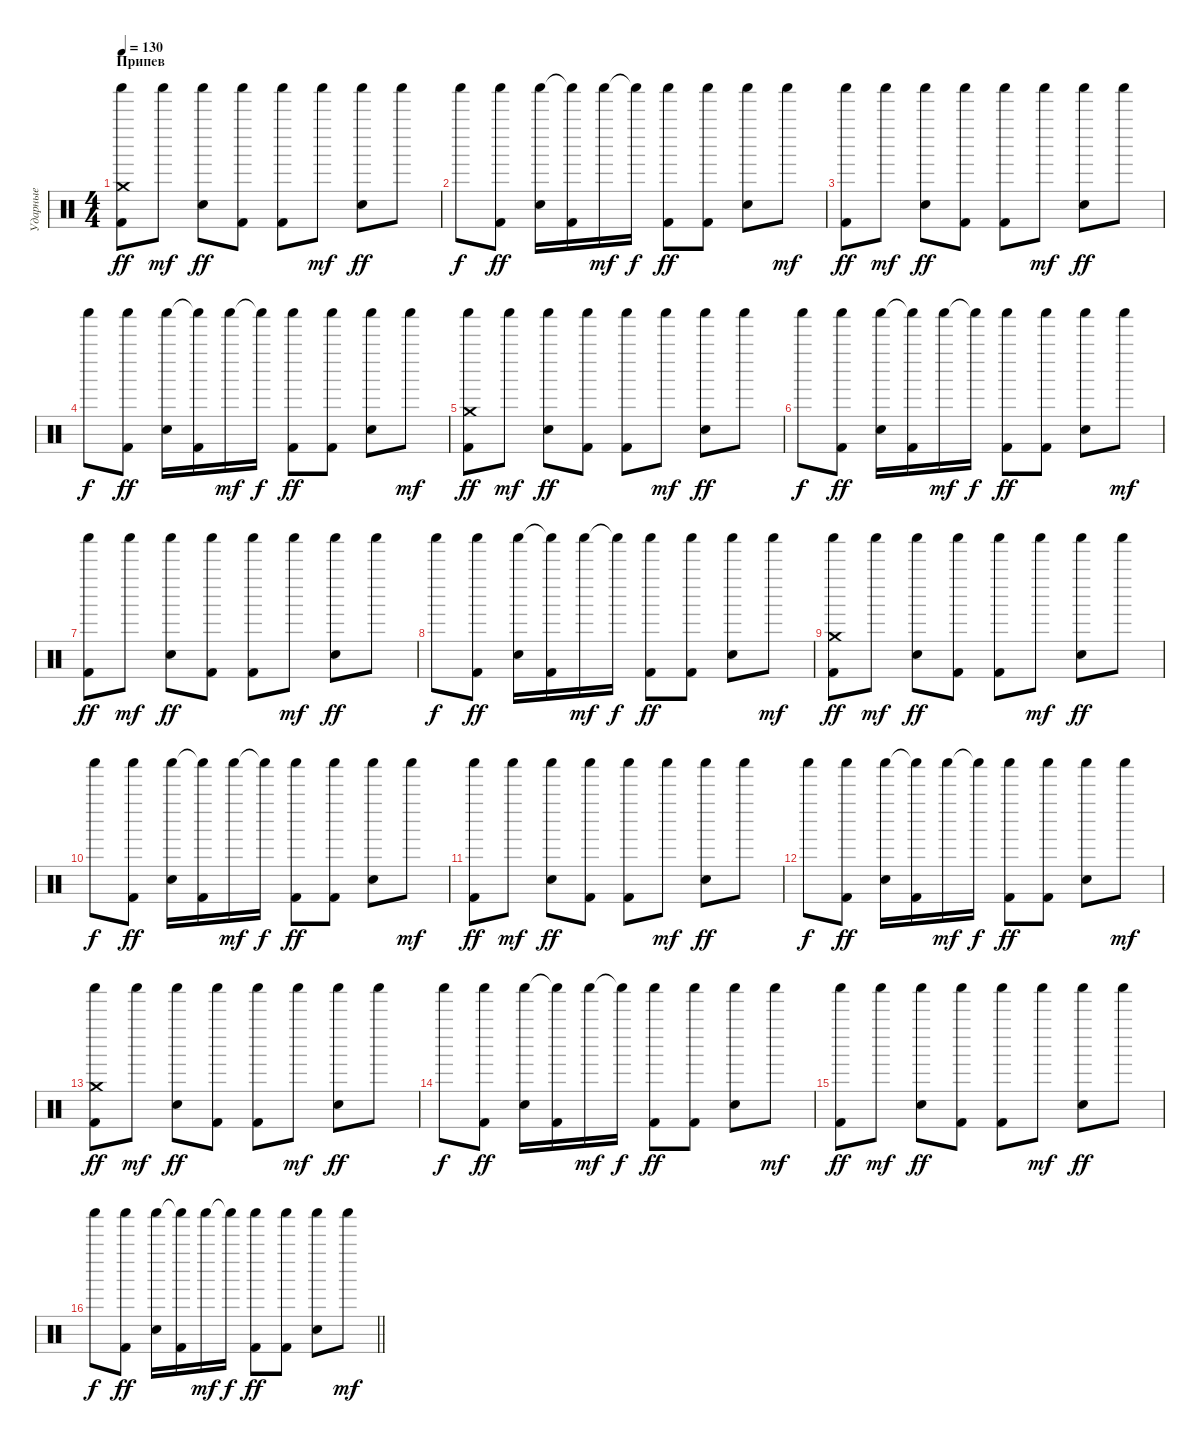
\track ("Ударные" "Ударные") {instrument percussion}
\staff {score}
\articulation defaults
\ts (4 4)
\section ("" "Припев")
\tempo 130
\clef neutral
\ks c
("Shaker (hit)" "Kick (hit) 2" "Crash medium (hit)").8{dy ff} "Shaker (hit)".8{dy mf} ("Shaker (hit)" "Snare (hit) 2").8{dy ff} ("Shaker (hit)" "Kick (hit) 2").8 ("Shaker (hit)" "Kick (hit) 2").8 "Shaker (hit)".8{dy mf} ("Shaker (hit)" "Snare (hit) 2").8{dy ff} "Shaker (hit)".8 |
"Shaker (hit)".8{dy f} ("Shaker (hit)" "Kick (hit) 2").8{dy ff} ("Shaker (hit)" "Snare (hit) 2").16 ("Shaker (hit)"{t} "Kick (hit) 2").16 "Shaker (hit)".16{dy mf} "Shaker (hit)"{t}.16{dy f} ("Shaker (hit)" "Kick (hit) 2").8{dy ff} ("Shaker (hit)" "Kick (hit) 2").8 ("Shaker (hit)" "Snare (hit) 2").8 "Shaker (hit)".8{dy mf} |
("Shaker (hit)" "Kick (hit) 2").8{dy ff} "Shaker (hit)".8{dy mf} ("Shaker (hit)" "Snare (hit) 2").8{dy ff} ("Shaker (hit)" "Kick (hit) 2").8 ("Shaker (hit)" "Kick (hit) 2").8 "Shaker (hit)".8{dy mf} ("Shaker (hit)" "Snare (hit) 2").8{dy ff} "Shaker (hit)".8 |
"Shaker (hit)".8{dy f} ("Shaker (hit)" "Kick (hit) 2").8{dy ff} ("Shaker (hit)" "Snare (hit) 2").16 ("Shaker (hit)"{t} "Kick (hit) 2").16 "Shaker (hit)".16{dy mf} "Shaker (hit)"{t}.16{dy f} ("Shaker (hit)" "Kick (hit) 2").8{dy ff} ("Shaker (hit)" "Kick (hit) 2").8 ("Shaker (hit)" "Snare (hit) 2").8 "Shaker (hit)".8{dy mf} |
("Shaker (hit)" "Kick (hit) 2" "Crash medium (hit)").8{dy ff} "Shaker (hit)".8{dy mf} ("Shaker (hit)" "Snare (hit) 2").8{dy ff} ("Shaker (hit)" "Kick (hit) 2").8 ("Shaker (hit)" "Kick (hit) 2").8 "Shaker (hit)".8{dy mf} ("Shaker (hit)" "Snare (hit) 2").8{dy ff} "Shaker (hit)".8 |
"Shaker (hit)".8{dy f} ("Shaker (hit)" "Kick (hit) 2").8{dy ff} ("Shaker (hit)" "Snare (hit) 2").16 ("Shaker (hit)"{t} "Kick (hit) 2").16 "Shaker (hit)".16{dy mf} "Shaker (hit)"{t}.16{dy f} ("Shaker (hit)" "Kick (hit) 2").8{dy ff} ("Shaker (hit)" "Kick (hit) 2").8 ("Shaker (hit)" "Snare (hit) 2").8 "Shaker (hit)".8{dy mf} |
("Shaker (hit)" "Kick (hit) 2").8{dy ff} "Shaker (hit)".8{dy mf} ("Shaker (hit)" "Snare (hit) 2").8{dy ff} ("Shaker (hit)" "Kick (hit) 2").8 ("Shaker (hit)" "Kick (hit) 2").8 "Shaker (hit)".8{dy mf} ("Shaker (hit)" "Snare (hit) 2").8{dy ff} "Shaker (hit)".8 |
"Shaker (hit)".8{dy f} ("Shaker (hit)" "Kick (hit) 2").8{dy ff} ("Shaker (hit)" "Snare (hit) 2").16 ("Shaker (hit)"{t} "Kick (hit) 2").16 "Shaker (hit)".16{dy mf} "Shaker (hit)"{t}.16{dy f} ("Shaker (hit)" "Kick (hit) 2").8{dy ff} ("Shaker (hit)" "Kick (hit) 2").8 ("Shaker (hit)" "Snare (hit) 2").8 "Shaker (hit)".8{dy mf} |
("Shaker (hit)" "Kick (hit) 2" "Crash medium (hit)").8{dy ff} "Shaker (hit)".8{dy mf} ("Shaker (hit)" "Snare (hit) 2").8{dy ff} ("Shaker (hit)" "Kick (hit) 2").8 ("Shaker (hit)" "Kick (hit) 2").8 "Shaker (hit)".8{dy mf} ("Shaker (hit)" "Snare (hit) 2").8{dy ff} "Shaker (hit)".8 |
"Shaker (hit)".8{dy f} ("Shaker (hit)" "Kick (hit) 2").8{dy ff} ("Shaker (hit)" "Snare (hit) 2").16 ("Shaker (hit)"{t} "Kick (hit) 2").16 "Shaker (hit)".16{dy mf} "Shaker (hit)"{t}.16{dy f} ("Shaker (hit)" "Kick (hit) 2").8{dy ff} ("Shaker (hit)" "Kick (hit) 2").8 ("Shaker (hit)" "Snare (hit) 2").8 "Shaker (hit)".8{dy mf} |
("Shaker (hit)" "Kick (hit) 2").8{dy ff} "Shaker (hit)".8{dy mf} ("Shaker (hit)" "Snare (hit) 2").8{dy ff} ("Shaker (hit)" "Kick (hit) 2").8 ("Shaker (hit)" "Kick (hit) 2").8 "Shaker (hit)".8{dy mf} ("Shaker (hit)" "Snare (hit) 2").8{dy ff} "Shaker (hit)".8 |
"Shaker (hit)".8{dy f} ("Shaker (hit)" "Kick (hit) 2").8{dy ff} ("Shaker (hit)" "Snare (hit) 2").16 ("Shaker (hit)"{t} "Kick (hit) 2").16 "Shaker (hit)".16{dy mf} "Shaker (hit)"{t}.16{dy f} ("Shaker (hit)" "Kick (hit) 2").8{dy ff} ("Shaker (hit)" "Kick (hit) 2").8 ("Shaker (hit)" "Snare (hit) 2").8 "Shaker (hit)".8{dy mf} |
("Shaker (hit)" "Kick (hit) 2" "Crash medium (hit)").8{dy ff} "Shaker (hit)".8{dy mf} ("Shaker (hit)" "Snare (hit) 2").8{dy ff} ("Shaker (hit)" "Kick (hit) 2").8 ("Shaker (hit)" "Kick (hit) 2").8 "Shaker (hit)".8{dy mf} ("Shaker (hit)" "Snare (hit) 2").8{dy ff} "Shaker (hit)".8 |
"Shaker (hit)".8{dy f} ("Shaker (hit)" "Kick (hit) 2").8{dy ff} ("Shaker (hit)" "Snare (hit) 2").16 ("Shaker (hit)"{t} "Kick (hit) 2").16 "Shaker (hit)".16{dy mf} "Shaker (hit)"{t}.16{dy f} ("Shaker (hit)" "Kick (hit) 2").8{dy ff} ("Shaker (hit)" "Kick (hit) 2").8 ("Shaker (hit)" "Snare (hit) 2").8 "Shaker (hit)".8{dy mf} |
("Shaker (hit)" "Kick (hit) 2").8{dy ff} "Shaker (hit)".8{dy mf} ("Shaker (hit)" "Snare (hit) 2").8{dy ff} ("Shaker (hit)" "Kick (hit) 2").8 ("Shaker (hit)" "Kick (hit) 2").8 "Shaker (hit)".8{dy mf} ("Shaker (hit)" "Snare (hit) 2").8{dy ff} "Shaker (hit)".8 |
\barLineRight lightlight "Shaker (hit)".8{dy f}
("Shaker (hit)" "Kick (hit) 2").8{dy ff} ("Shaker (hit)" "Snare (hit) 2").16 ("Shaker (hit)"{t} "Kick (hit) 2").16 "Shaker (hit)".16{dy mf} "Shaker (hit)"{t}.16{dy f} ("Shaker (hit)" "Kick (hit) 2").8{dy ff} ("Shaker (hit)" "Kick (hit) 2").8 ("Shaker (hit)" "Snare (hit) 2").8 "Shaker (hit)".8{dy mf}
